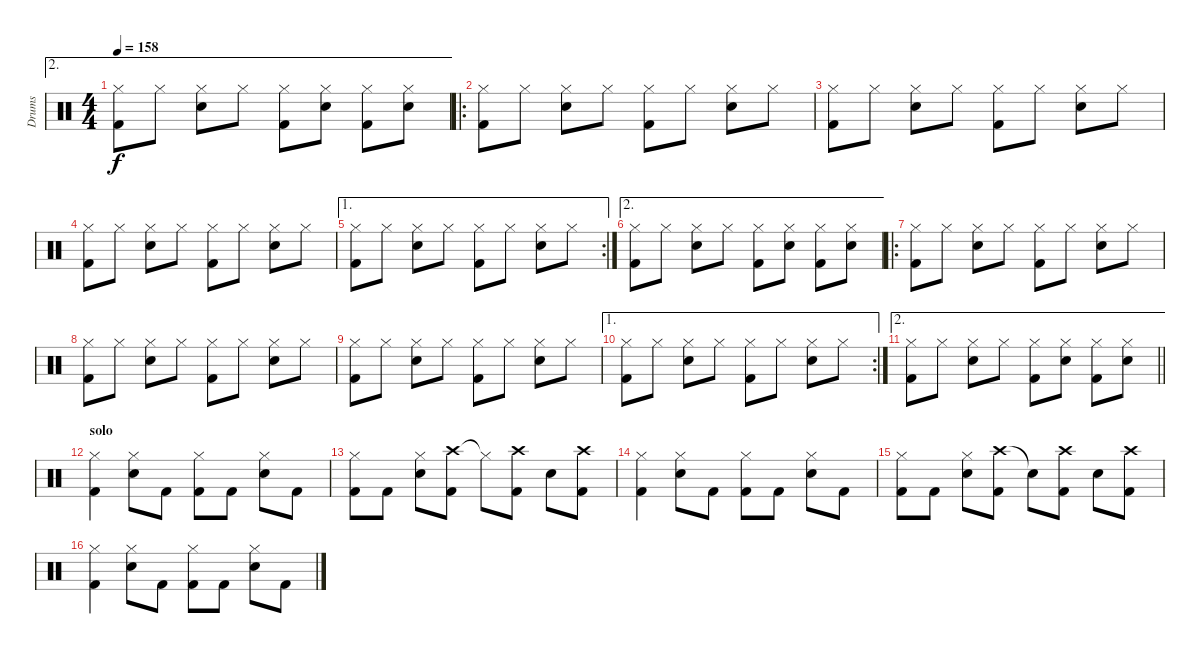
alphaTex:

\track ("Drums" "Drums") {instrument percussion}
\staff {score}
\articulation defaults
\ae 2
\ts (4 4)
\tempo 158
\clef neutral
\ks c
("Hi-Hat (closed)" "Kick (hit) 2").8{dy f} "Hi-Hat (closed)".8 ("Hi-Hat (closed)" "Electric Snare (hit)").8 "Hi-Hat (closed)".8 ("Hi-Hat (closed)" "Kick (hit) 2").8 ("Hi-Hat (closed)" "Electric Snare (hit)").8 ("Hi-Hat (closed)" "Kick (hit) 2").8 ("Hi-Hat (closed)" "Electric Snare (hit)").8 |
\ro
("Hi-Hat (closed)" "Kick (hit) 2").8 "Hi-Hat (closed)".8 ("Hi-Hat (closed)" "Electric Snare (hit)").8 "Hi-Hat (closed)".8 ("Hi-Hat (closed)" "Kick (hit) 2").8 "Hi-Hat (closed)".8 ("Hi-Hat (closed)" "Electric Snare (hit)").8 "Hi-Hat (closed)".8 |
("Hi-Hat (closed)" "Kick (hit) 2").8 "Hi-Hat (closed)".8 ("Hi-Hat (closed)" "Electric Snare (hit)").8 "Hi-Hat (closed)".8 ("Hi-Hat (closed)" "Kick (hit) 2").8 "Hi-Hat (closed)".8 ("Hi-Hat (closed)" "Electric Snare (hit)").8 "Hi-Hat (closed)".8 |
("Hi-Hat (closed)" "Kick (hit) 2").8 "Hi-Hat (closed)".8 ("Hi-Hat (closed)" "Electric Snare (hit)").8 "Hi-Hat (closed)".8 ("Hi-Hat (closed)" "Kick (hit) 2").8 "Hi-Hat (closed)".8 ("Hi-Hat (closed)" "Electric Snare (hit)").8 "Hi-Hat (closed)".8 |
\ae 1
\rc 2
("Hi-Hat (closed)" "Kick (hit) 2").8 "Hi-Hat (closed)".8 ("Hi-Hat (closed)" "Electric Snare (hit)").8 "Hi-Hat (closed)".8 ("Hi-Hat (closed)" "Kick (hit) 2").8 "Hi-Hat (closed)".8 ("Hi-Hat (closed)" "Electric Snare (hit)").8 "Hi-Hat (closed)".8 |
\ae 2
("Hi-Hat (closed)" "Kick (hit) 2").8 "Hi-Hat (closed)".8 ("Hi-Hat (closed)" "Electric Snare (hit)").8 "Hi-Hat (closed)".8 ("Hi-Hat (closed)" "Kick (hit) 2").8 ("Hi-Hat (closed)" "Electric Snare (hit)").8 ("Hi-Hat (closed)" "Kick (hit) 2").8 ("Hi-Hat (closed)" "Electric Snare (hit)").8 |
\ro
("Hi-Hat (closed)" "Kick (hit) 2").8 "Hi-Hat (closed)".8 ("Hi-Hat (closed)" "Electric Snare (hit)").8 "Hi-Hat (closed)".8 ("Hi-Hat (closed)" "Kick (hit) 2").8 "Hi-Hat (closed)".8 ("Hi-Hat (closed)" "Electric Snare (hit)").8 "Hi-Hat (closed)".8 |
("Hi-Hat (closed)" "Kick (hit) 2").8 "Hi-Hat (closed)".8 ("Hi-Hat (closed)" "Electric Snare (hit)").8 "Hi-Hat (closed)".8 ("Hi-Hat (closed)" "Kick (hit) 2").8 "Hi-Hat (closed)".8 ("Hi-Hat (closed)" "Electric Snare (hit)").8 "Hi-Hat (closed)".8 |
("Hi-Hat (closed)" "Kick (hit) 2").8 "Hi-Hat (closed)".8 ("Hi-Hat (closed)" "Electric Snare (hit)").8 "Hi-Hat (closed)".8 ("Hi-Hat (closed)" "Kick (hit) 2").8 "Hi-Hat (closed)".8 ("Hi-Hat (closed)" "Electric Snare (hit)").8 "Hi-Hat (closed)".8 |
\ae 1
\rc 2
("Hi-Hat (closed)" "Kick (hit) 2").8 "Hi-Hat (closed)".8 ("Hi-Hat (closed)" "Electric Snare (hit)").8 "Hi-Hat (closed)".8 ("Hi-Hat (closed)" "Kick (hit) 2").8 "Hi-Hat (closed)".8 ("Hi-Hat (closed)" "Electric Snare (hit)").8 "Hi-Hat (closed)".8 |
\ae 2
\barLineRight lightlight
("Hi-Hat (closed)" "Kick (hit) 2").8 "Hi-Hat (closed)".8 ("Hi-Hat (closed)" "Electric Snare (hit)").8 "Hi-Hat (closed)".8 ("Hi-Hat (closed)" "Kick (hit) 2").8 ("Hi-Hat (closed)" "Electric Snare (hit)").8 ("Hi-Hat (closed)" "Kick (hit) 2").8 ("Hi-Hat (closed)" "Electric Snare (hit)").8 |
\section ("" "solo")
("Hi-Hat (closed)" "Kick (hit) 2").4 ("Hi-Hat (closed)" "Electric Snare (hit)").8 "Kick (hit) 2".8 ("Hi-Hat (closed)" "Kick (hit) 2").8 "Kick (hit) 2".8 ("Hi-Hat (closed)" "Electric Snare (hit)").8 "Kick (hit) 2".8 |
("Hi-Hat (closed)" "Kick (hit) 2").8 "Kick (hit) 2".8 ("Hi-Hat (closed)" "Electric Snare (hit)").8 ("Crash high (hit)" "Kick (hit) 2").8 "Hi-Hat (closed)"{t}.8 ("Crash high (hit)" "Kick (hit) 2").8 "Electric Snare (hit)".8 ("Crash high (hit)" "Kick (hit) 2").8 |
("Hi-Hat (closed)" "Kick (hit) 2").4 ("Hi-Hat (closed)" "Electric Snare (hit)").8 "Kick (hit) 2".8 ("Hi-Hat (closed)" "Kick (hit) 2").8 "Kick (hit) 2".8 ("Hi-Hat (closed)" "Electric Snare (hit)").8 "Kick (hit) 2".8 |
("Hi-Hat (closed)" "Kick (hit) 2").8 "Kick (hit) 2".8 ("Hi-Hat (closed)" "Electric Snare (hit)").8 ("Crash high (hit)" "Kick (hit) 2").8 "Snare (hit)"{t}.8 ("Crash high (hit)" "Kick (hit) 2").8 "Electric Snare (hit)".8 ("Crash high (hit)" "Kick (hit) 2").8 |
("Hi-Hat (closed)" "Kick (hit) 2").4 ("Hi-Hat (closed)" "Electric Snare (hit)").8 "Kick (hit) 2".8 ("Hi-Hat (closed)" "Kick (hit) 2").8 "Kick (hit) 2".8 ("Hi-Hat (closed)" "Electric Snare (hit)").8 "Kick (hit) 2".8
